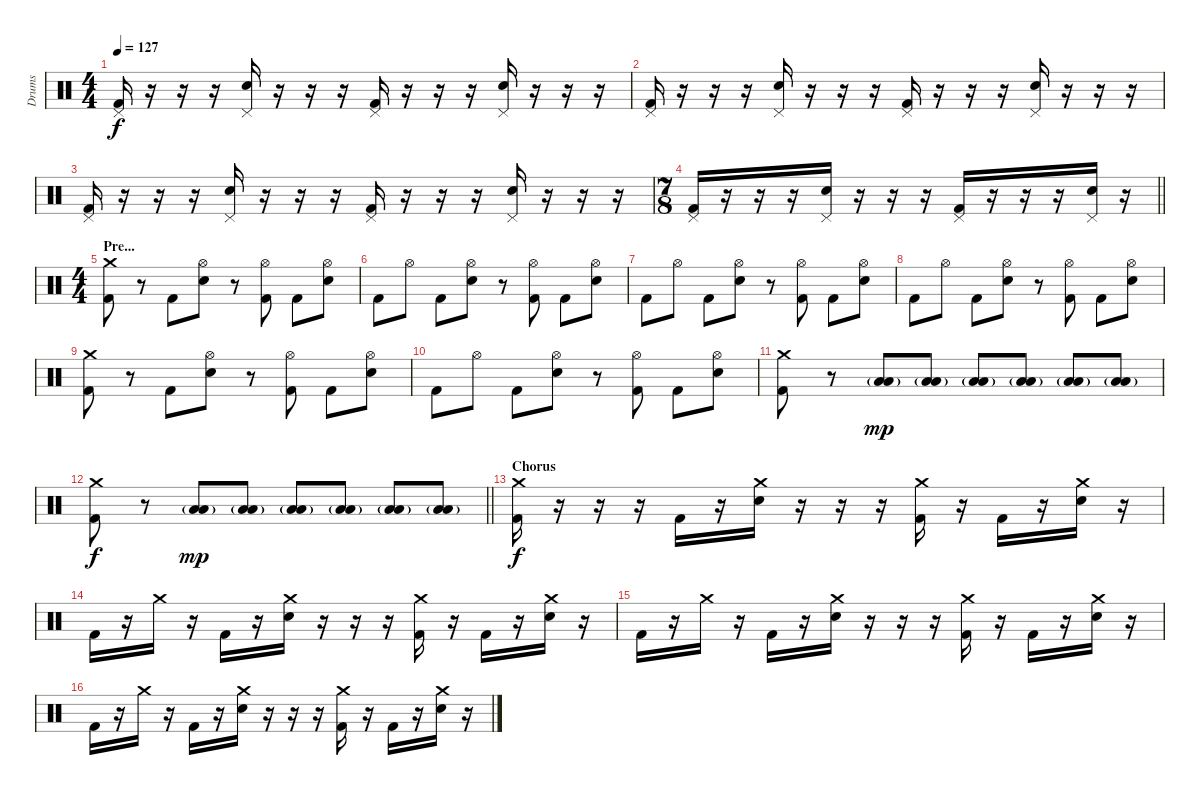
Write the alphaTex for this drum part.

\track ("Drums" "Drums") {instrument percussion}
\staff {score}
\articulation defaults
\ts (4 4)
\tempo 127
\clef neutral
\ks c
("Pedal Hi-Hat (hit)" "Kick (hit) 2").16{dy f} r.16 r.16 r.16 ("Pedal Hi-Hat (hit)" "Electric Snare (hit)").16 r.16 r.16 r.16 ("Pedal Hi-Hat (hit)" "Kick (hit) 2").16 r.16 r.16 r.16 ("Pedal Hi-Hat (hit)" "Electric Snare (hit)").16 r.16 r.16 r.16 |
("Pedal Hi-Hat (hit)" "Kick (hit) 2").16 r.16 r.16 r.16 ("Pedal Hi-Hat (hit)" "Electric Snare (hit)").16 r.16 r.16 r.16 ("Pedal Hi-Hat (hit)" "Kick (hit) 2").16 r.16 r.16 r.16 ("Pedal Hi-Hat (hit)" "Electric Snare (hit)").16 r.16 r.16 r.16 |
("Pedal Hi-Hat (hit)" "Kick (hit) 2").16 r.16 r.16 r.16 ("Pedal Hi-Hat (hit)" "Electric Snare (hit)").16 r.16 r.16 r.16 ("Pedal Hi-Hat (hit)" "Kick (hit) 2").16 r.16 r.16 r.16 ("Pedal Hi-Hat (hit)" "Electric Snare (hit)").16 r.16 r.16 r.16 |
\ts (7 8)
\barLineRight lightlight
("Pedal Hi-Hat (hit)" "Kick (hit) 2").16 r.16 r.16 r.16 ("Pedal Hi-Hat (hit)" "Electric Snare (hit)").16 r.16 r.16 r.16 ("Pedal Hi-Hat (hit)" "Kick (hit) 2").16 r.16 r.16 r.16 ("Pedal Hi-Hat (hit)" "Electric Snare (hit)").16 r.16 |
\ts (4 4)
\section ("" "Pre...")
("Crash medium (hit)" "Kick (hit) 2").8 r.8 "Kick (hit) 2".8 ("Hi-Hat (open)" "Electric Snare (hit)").8 r.8 ("Hi-Hat (open)" "Kick (hit) 2").8 "Kick (hit) 2".8 ("Hi-Hat (open)" "Electric Snare (hit)").8 |
"Kick (hit) 2".8 "Hi-Hat (open)".8 "Kick (hit) 2".8 ("Hi-Hat (open)" "Electric Snare (hit)").8 r.8 ("Hi-Hat (open)" "Kick (hit) 2").8 "Kick (hit) 2".8 ("Hi-Hat (open)" "Electric Snare (hit)").8 |
"Kick (hit) 2".8 "Hi-Hat (open)".8 "Kick (hit) 2".8 ("Hi-Hat (open)" "Electric Snare (hit)").8 r.8 ("Hi-Hat (open)" "Kick (hit) 2").8 "Kick (hit) 2".8 ("Hi-Hat (open)" "Electric Snare (hit)").8 |
"Kick (hit) 2".8 "Hi-Hat (open)".8 "Kick (hit) 2".8 ("Hi-Hat (open)" "Electric Snare (hit)").8 r.8 ("Hi-Hat (open)" "Kick (hit) 2").8 "Kick (hit) 2".8 ("Hi-Hat (open)" "Electric Snare (hit)").8 |
("Crash medium (hit)" "Kick (hit) 2").8 r.8 "Kick (hit) 2".8 ("Hi-Hat (open)" "Electric Snare (hit)").8 r.8 ("Hi-Hat (open)" "Kick (hit) 2").8 "Kick (hit) 2".8 ("Hi-Hat (open)" "Electric Snare (hit)").8 |
"Kick (hit) 2".8 "Hi-Hat (open)".8 "Kick (hit) 2".8 ("Hi-Hat (open)" "Electric Snare (hit)").8 r.8 ("Hi-Hat (open)" "Kick (hit) 2").8 "Kick (hit) 2".8 ("Hi-Hat (open)" "Electric Snare (hit)").8 |
("Crash medium (hit)" "Kick (hit) 2").8 r.8 ("Low Tom (hit)" "Low Floor Tom (hit)"{g}).8{dy mp} ("Low Tom (hit)" "Low Floor Tom (hit)"{g}).8 ("Low Tom (hit)" "Low Floor Tom (hit)"{g}).8 ("Low Tom (hit)" "Low Floor Tom (hit)"{g}).8 ("Low Tom (hit)" "Low Floor Tom (hit)"{g}).8 ("Low Tom (hit)" "Low Floor Tom (hit)"{g}).8 |
\barLineRight lightlight
("Crash medium (hit)" "Kick (hit) 2").8{dy f} r.8 ("Low Tom (hit)" "Low Floor Tom (hit)"{g}).8{dy mp} ("Low Tom (hit)" "Low Floor Tom (hit)"{g}).8 ("Low Tom (hit)" "Low Floor Tom (hit)"{g}).8 ("Low Tom (hit)" "Low Floor Tom (hit)"{g}).8 ("Low Tom (hit)" "Low Floor Tom (hit)"{g}).8 ("Low Tom (hit)" "Low Floor Tom (hit)"{g}).8 |
\section ("" "Chorus")
("Crash medium (hit)" "Kick (hit) 2").16{dy f} r.16 r.16 r.16 "Kick (hit) 2".16 r.16 ("Crash medium (hit)" "Electric Snare (hit)").16 r.16 r.16 r.16 ("Crash medium (hit)" "Kick (hit) 2").16 r.16 "Kick (hit) 2".16 r.16 ("Crash medium (hit)" "Electric Snare (hit)").16 r.16 |
"Kick (hit) 2".16 r.16 "Crash medium (hit)".16 r.16 "Kick (hit) 2".16 r.16 ("Crash medium (hit)" "Electric Snare (hit)").16 r.16 r.16 r.16 ("Crash medium (hit)" "Kick (hit) 2").16 r.16 "Kick (hit) 2".16 r.16 ("Crash medium (hit)" "Electric Snare (hit)").16 r.16 |
"Kick (hit) 2".16 r.16 "Crash medium (hit)".16 r.16 "Kick (hit) 2".16 r.16 ("Crash medium (hit)" "Electric Snare (hit)").16 r.16 r.16 r.16 ("Crash medium (hit)" "Kick (hit) 2").16 r.16 "Kick (hit) 2".16 r.16 ("Crash medium (hit)" "Electric Snare (hit)").16 r.16 |
"Kick (hit) 2".16 r.16 "Crash medium (hit)".16 r.16 "Kick (hit) 2".16 r.16 ("Crash medium (hit)" "Electric Snare (hit)").16 r.16 r.16 r.16 ("Crash medium (hit)" "Kick (hit) 2").16 r.16 "Kick (hit) 2".16 r.16 ("Crash medium (hit)" "Electric Snare (hit)").16 r.16
